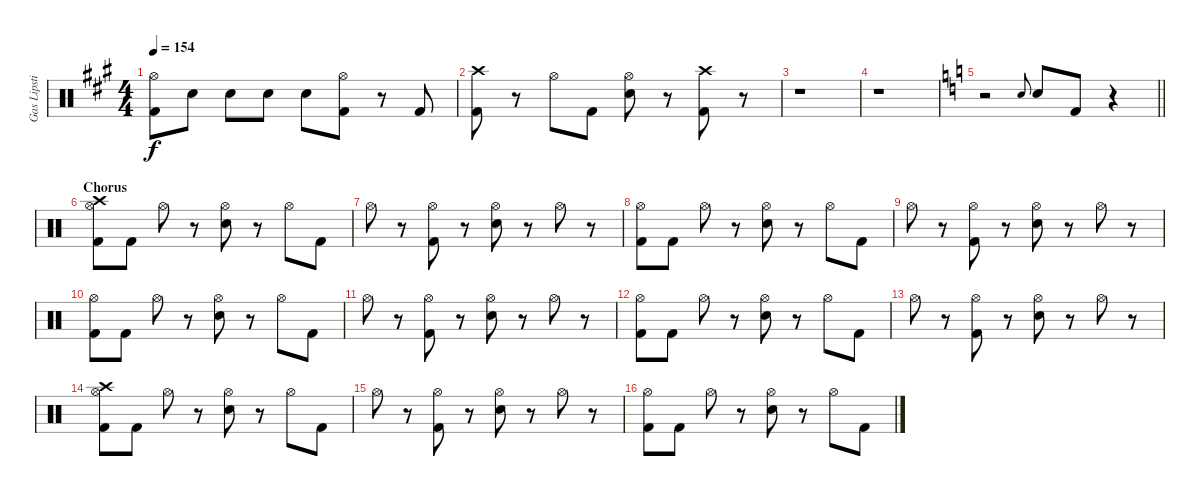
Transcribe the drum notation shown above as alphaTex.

\track ("Gas Lipstick (Drums)" "Gas Lipsti") {instrument percussion}
\staff {score}
\articulation defaults
\ts (4 4)
\tempo 154
\clef neutral
\ks a
("Hi-Hat (open)" "Kick (hit) 2").8{dy f} "Snare (hit) 2".8 "Snare (hit) 2".8 "Snare (hit) 2".8 "Snare (hit) 2".8 ("Hi-Hat (open)" "Kick (hit) 2").8 r.8 "Kick (hit) 2".8 |
("Crash high (hit)" "Kick (hit) 2").8 r.8 "Hi-Hat (open)".8 "Kick (hit) 2".8 ("Hi-Hat (open)" "Snare (hit) 2").8 r.8 ("Crash high (hit)" "Kick (hit) 2").8 r.8 |
r.1 |
r.1 |
\barLineRight lightlight
\ks c
r.2 "Snare (hit) 2".8{gr onbeat} "Snare (hit) 2".8 "Kick (hit) 2".8 r.4 |
\section ("" "Chorus")
("Crash high (hit)" "Hi-Hat (open)" "Kick (hit) 2").8 "Kick (hit) 2".8 "Hi-Hat (open)".8 r.8 ("Hi-Hat (open)" "Snare (hit) 2").8 r.8 "Hi-Hat (open)".8 "Kick (hit) 2".8 |
"Hi-Hat (open)".8 r.8 ("Hi-Hat (open)" "Kick (hit) 2").8 r.8 ("Hi-Hat (open)" "Snare (hit) 2").8 r.8 "Hi-Hat (open)".8 r.8 |
("Hi-Hat (open)" "Kick (hit) 2").8 "Kick (hit) 2".8 "Hi-Hat (open)".8 r.8 ("Hi-Hat (open)" "Snare (hit) 2").8 r.8 "Hi-Hat (open)".8 "Kick (hit) 2".8 |
"Hi-Hat (open)".8 r.8 ("Hi-Hat (open)" "Kick (hit) 2").8 r.8 ("Hi-Hat (open)" "Snare (hit) 2").8 r.8 "Hi-Hat (open)".8 r.8 |
("Hi-Hat (open)" "Kick (hit) 2").8 "Kick (hit) 2".8 "Hi-Hat (open)".8 r.8 ("Hi-Hat (open)" "Snare (hit) 2").8 r.8 "Hi-Hat (open)".8 "Kick (hit) 2".8 |
"Hi-Hat (open)".8 r.8 ("Hi-Hat (open)" "Kick (hit) 2").8 r.8 ("Hi-Hat (open)" "Snare (hit) 2").8 r.8 "Hi-Hat (open)".8 r.8 |
("Hi-Hat (open)" "Kick (hit) 2").8 "Kick (hit) 2".8 "Hi-Hat (open)".8 r.8 ("Hi-Hat (open)" "Snare (hit) 2").8 r.8 "Hi-Hat (open)".8 "Kick (hit) 2".8 |
"Hi-Hat (open)".8 r.8 ("Hi-Hat (open)" "Kick (hit) 2").8 r.8 ("Hi-Hat (open)" "Snare (hit) 2").8 r.8 "Hi-Hat (open)".8 r.8 |
("Crash high (hit)" "Hi-Hat (open)" "Kick (hit) 2").8 "Kick (hit) 2".8 "Hi-Hat (open)".8 r.8 ("Hi-Hat (open)" "Snare (hit) 2").8 r.8 "Hi-Hat (open)".8 "Kick (hit) 2".8 |
"Hi-Hat (open)".8 r.8 ("Hi-Hat (open)" "Kick (hit) 2").8 r.8 ("Hi-Hat (open)" "Snare (hit) 2").8 r.8 "Hi-Hat (open)".8 r.8 |
("Hi-Hat (open)" "Kick (hit) 2").8 "Kick (hit) 2".8 "Hi-Hat (open)".8 r.8 ("Hi-Hat (open)" "Snare (hit) 2").8 r.8 "Hi-Hat (open)".8 "Kick (hit) 2".8
